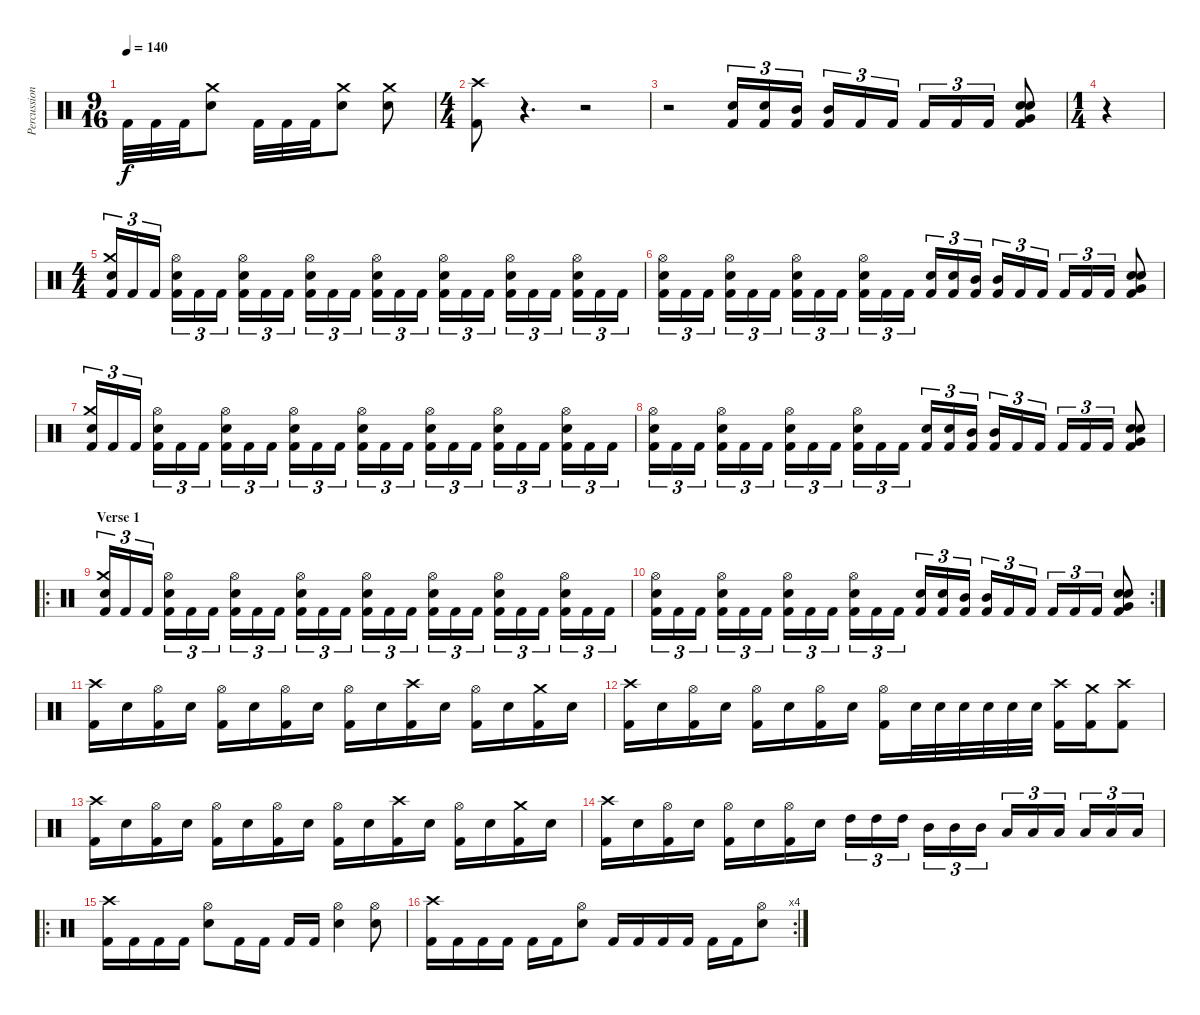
\track ("Percussioni" "Percussion") {instrument percussion}
\staff {score}
\articulation defaults
\ts (9 16)
\tempo 140
\clef neutral
\ks c "Kick (hit) 2".32{dy f} "Kick (hit) 2".32 "Kick (hit) 2".32
("Crash medium (hit)" "Electric Snare (hit)").8 "Kick (hit) 2".32 "Kick (hit) 2".32 "Kick (hit) 2".32 ("Crash medium (hit)" "Electric Snare (hit)").8 ("Crash medium (hit)" "Electric Snare (hit)").8 |
\ts (4 4)
("Crash high (hit)" "Kick (hit) 2").8 r.4{d} r.2 |
r.2 ("Electric Snare (hit)" "Kick (hit) 2").16{tu (3 2)} ("Electric Snare (hit)" "Kick (hit) 2").16{tu (3 2)} ("Mid Tom (hit)" "Kick (hit) 2").16{tu (3 2)} ("Mid Tom (hit)" "Kick (hit) 2").16{tu (3 2)} "Kick (hit) 2".16{tu (3 2)} "Kick (hit) 2".16{tu (3 2)} "Kick (hit) 2".16{tu (3 2)} "Kick (hit) 2".16{tu (3 2)} "Kick (hit) 2".16{tu (3 2)} ("Electric Snare (hit)" "Electric Snare (hit)" "Very Low Tom (hit)" "Kick (hit) 2").8 |
\ts (1 4)
r.4 |
\ts (4 4)
("Crash medium (hit)" "Electric Snare (hit)" "Kick (hit) 2").16{tu (3 2)} "Kick (hit) 2".16{tu (3 2)} "Kick (hit) 2".16{tu (3 2)} ("Hi-Hat (open)" "Electric Snare (hit)" "Kick (hit) 2").16{tu (3 2)} "Kick (hit) 2".16{tu (3 2)} "Kick (hit) 2".16{tu (3 2)} ("Hi-Hat (open)" "Electric Snare (hit)" "Kick (hit) 2").16{tu (3 2)} "Kick (hit) 2".16{tu (3 2)} "Kick (hit) 2".16{tu (3 2)} ("Hi-Hat (open)" "Electric Snare (hit)" "Kick (hit) 2").16{tu (3 2)} "Kick (hit) 2".16{tu (3 2)} "Kick (hit) 2".16{tu (3 2)} ("Hi-Hat (open)" "Electric Snare (hit)" "Kick (hit) 2").16{tu (3 2)} "Kick (hit) 2".16{tu (3 2)} "Kick (hit) 2".16{tu (3 2)} ("Hi-Hat (open)" "Electric Snare (hit)" "Kick (hit) 2").16{tu (3 2)} "Kick (hit) 2".16{tu (3 2)} "Kick (hit) 2".16{tu (3 2)} ("Hi-Hat (open)" "Electric Snare (hit)" "Kick (hit) 2").16{tu (3 2)} "Kick (hit) 2".16{tu (3 2)} "Kick (hit) 2".16{tu (3 2)} ("Hi-Hat (open)" "Electric Snare (hit)" "Kick (hit) 2").16{tu (3 2)} "Kick (hit) 2".16{tu (3 2)} "Kick (hit) 2".16{tu (3 2)} |
("Hi-Hat (open)" "Electric Snare (hit)" "Kick (hit) 2").16{tu (3 2)} "Kick (hit) 2".16{tu (3 2)} "Kick (hit) 2".16{tu (3 2)} ("Hi-Hat (open)" "Electric Snare (hit)" "Kick (hit) 2").16{tu (3 2)} "Kick (hit) 2".16{tu (3 2)} "Kick (hit) 2".16{tu (3 2)} ("Hi-Hat (open)" "Electric Snare (hit)" "Kick (hit) 2").16{tu (3 2)} "Kick (hit) 2".16{tu (3 2)} "Kick (hit) 2".16{tu (3 2)} ("Hi-Hat (open)" "Electric Snare (hit)" "Kick (hit) 2").16{tu (3 2)} "Kick (hit) 2".16{tu (3 2)} "Kick (hit) 2".16{tu (3 2)} ("Electric Snare (hit)" "Kick (hit) 2").16{tu (3 2)} ("Electric Snare (hit)" "Kick (hit) 2").16{tu (3 2)} ("Mid Tom (hit)" "Kick (hit) 2").16{tu (3 2)} ("Mid Tom (hit)" "Kick (hit) 2").16{tu (3 2)} "Kick (hit) 2".16{tu (3 2)} "Kick (hit) 2".16{tu (3 2)} "Kick (hit) 2".16{tu (3 2)} "Kick (hit) 2".16{tu (3 2)} "Kick (hit) 2".16{tu (3 2)} ("Electric Snare (hit)" "Electric Snare (hit)" "Very Low Tom (hit)" "Kick (hit) 2").8 |
("Crash medium (hit)" "Electric Snare (hit)" "Kick (hit) 2").16{tu (3 2)} "Kick (hit) 2".16{tu (3 2)} "Kick (hit) 2".16{tu (3 2)} ("Hi-Hat (open)" "Electric Snare (hit)" "Kick (hit) 2").16{tu (3 2)} "Kick (hit) 2".16{tu (3 2)} "Kick (hit) 2".16{tu (3 2)} ("Hi-Hat (open)" "Electric Snare (hit)" "Kick (hit) 2").16{tu (3 2)} "Kick (hit) 2".16{tu (3 2)} "Kick (hit) 2".16{tu (3 2)} ("Hi-Hat (open)" "Electric Snare (hit)" "Kick (hit) 2").16{tu (3 2)} "Kick (hit) 2".16{tu (3 2)} "Kick (hit) 2".16{tu (3 2)} ("Hi-Hat (open)" "Electric Snare (hit)" "Kick (hit) 2").16{tu (3 2)} "Kick (hit) 2".16{tu (3 2)} "Kick (hit) 2".16{tu (3 2)} ("Hi-Hat (open)" "Electric Snare (hit)" "Kick (hit) 2").16{tu (3 2)} "Kick (hit) 2".16{tu (3 2)} "Kick (hit) 2".16{tu (3 2)} ("Hi-Hat (open)" "Electric Snare (hit)" "Kick (hit) 2").16{tu (3 2)} "Kick (hit) 2".16{tu (3 2)} "Kick (hit) 2".16{tu (3 2)} ("Hi-Hat (open)" "Electric Snare (hit)" "Kick (hit) 2").16{tu (3 2)} "Kick (hit) 2".16{tu (3 2)} "Kick (hit) 2".16{tu (3 2)} |
("Hi-Hat (open)" "Electric Snare (hit)" "Kick (hit) 2").16{tu (3 2)} "Kick (hit) 2".16{tu (3 2)} "Kick (hit) 2".16{tu (3 2)} ("Hi-Hat (open)" "Electric Snare (hit)" "Kick (hit) 2").16{tu (3 2)} "Kick (hit) 2".16{tu (3 2)} "Kick (hit) 2".16{tu (3 2)} ("Hi-Hat (open)" "Electric Snare (hit)" "Kick (hit) 2").16{tu (3 2)} "Kick (hit) 2".16{tu (3 2)} "Kick (hit) 2".16{tu (3 2)} ("Hi-Hat (open)" "Electric Snare (hit)" "Kick (hit) 2").16{tu (3 2)} "Kick (hit) 2".16{tu (3 2)} "Kick (hit) 2".16{tu (3 2)} ("Electric Snare (hit)" "Kick (hit) 2").16{tu (3 2)} ("Electric Snare (hit)" "Kick (hit) 2").16{tu (3 2)} ("Mid Tom (hit)" "Kick (hit) 2").16{tu (3 2)} ("Mid Tom (hit)" "Kick (hit) 2").16{tu (3 2)} "Kick (hit) 2".16{tu (3 2)} "Kick (hit) 2".16{tu (3 2)} "Kick (hit) 2".16{tu (3 2)} "Kick (hit) 2".16{tu (3 2)} "Kick (hit) 2".16{tu (3 2)} ("Electric Snare (hit)" "Electric Snare (hit)" "Very Low Tom (hit)" "Kick (hit) 2").8 |
\ro
\section ("" "Verse 1")
("Crash medium (hit)" "Electric Snare (hit)" "Kick (hit) 2").16{tu (3 2)} "Kick (hit) 2".16{tu (3 2)} "Kick (hit) 2".16{tu (3 2)} ("Hi-Hat (open)" "Electric Snare (hit)" "Kick (hit) 2").16{tu (3 2)} "Kick (hit) 2".16{tu (3 2)} "Kick (hit) 2".16{tu (3 2)} ("Hi-Hat (open)" "Electric Snare (hit)" "Kick (hit) 2").16{tu (3 2)} "Kick (hit) 2".16{tu (3 2)} "Kick (hit) 2".16{tu (3 2)} ("Hi-Hat (open)" "Electric Snare (hit)" "Kick (hit) 2").16{tu (3 2)} "Kick (hit) 2".16{tu (3 2)} "Kick (hit) 2".16{tu (3 2)} ("Hi-Hat (open)" "Electric Snare (hit)" "Kick (hit) 2").16{tu (3 2)} "Kick (hit) 2".16{tu (3 2)} "Kick (hit) 2".16{tu (3 2)} ("Hi-Hat (open)" "Electric Snare (hit)" "Kick (hit) 2").16{tu (3 2)} "Kick (hit) 2".16{tu (3 2)} "Kick (hit) 2".16{tu (3 2)} ("Hi-Hat (open)" "Electric Snare (hit)" "Kick (hit) 2").16{tu (3 2)} "Kick (hit) 2".16{tu (3 2)} "Kick (hit) 2".16{tu (3 2)} ("Hi-Hat (open)" "Electric Snare (hit)" "Kick (hit) 2").16{tu (3 2)} "Kick (hit) 2".16{tu (3 2)} "Kick (hit) 2".16{tu (3 2)} |
\rc 2
("Hi-Hat (open)" "Electric Snare (hit)" "Kick (hit) 2").16{tu (3 2)} "Kick (hit) 2".16{tu (3 2)} "Kick (hit) 2".16{tu (3 2)} ("Hi-Hat (open)" "Electric Snare (hit)" "Kick (hit) 2").16{tu (3 2)} "Kick (hit) 2".16{tu (3 2)} "Kick (hit) 2".16{tu (3 2)} ("Hi-Hat (open)" "Electric Snare (hit)" "Kick (hit) 2").16{tu (3 2)} "Kick (hit) 2".16{tu (3 2)} "Kick (hit) 2".16{tu (3 2)} ("Hi-Hat (open)" "Electric Snare (hit)" "Kick (hit) 2").16{tu (3 2)} "Kick (hit) 2".16{tu (3 2)} "Kick (hit) 2".16{tu (3 2)} ("Electric Snare (hit)" "Kick (hit) 2").16{tu (3 2)} ("Electric Snare (hit)" "Kick (hit) 2").16{tu (3 2)} ("Mid Tom (hit)" "Kick (hit) 2").16{tu (3 2)} ("Mid Tom (hit)" "Kick (hit) 2").16{tu (3 2)} "Kick (hit) 2".16{tu (3 2)} "Kick (hit) 2".16{tu (3 2)} "Kick (hit) 2".16{tu (3 2)} "Kick (hit) 2".16{tu (3 2)} "Kick (hit) 2".16{tu (3 2)} ("Electric Snare (hit)" "Electric Snare (hit)" "Very Low Tom (hit)" "Kick (hit) 2").8 |
("Crash high (hit)" "Kick (hit) 2").16 "Electric Snare (hit)".16 ("Hi-Hat (open)" "Kick (hit) 2").16 "Electric Snare (hit)".16 ("Hi-Hat (open)" "Kick (hit) 2").16 "Electric Snare (hit)".16 ("Hi-Hat (open)" "Kick (hit) 2").16 "Electric Snare (hit)".16 ("Hi-Hat (open)" "Kick (hit) 2").16 "Electric Snare (hit)".16 ("Crash high (hit)" "Kick (hit) 2").16 "Electric Snare (hit)".16 ("Hi-Hat (open)" "Kick (hit) 2").16 "Electric Snare (hit)".16 ("Crash medium (hit)" "Kick (hit) 2").16 "Electric Snare (hit)".16 |
("Crash high (hit)" "Kick (hit) 2").16 "Electric Snare (hit)".16 ("Hi-Hat (open)" "Kick (hit) 2").16 "Electric Snare (hit)".16 ("Hi-Hat (open)" "Kick (hit) 2").16 "Electric Snare (hit)".16 ("Hi-Hat (open)" "Kick (hit) 2").16 "Electric Snare (hit)".16 ("Hi-Hat (open)" "Kick (hit) 2").16 "Electric Snare (hit)".32 "Electric Snare (hit)".32 "Electric Snare (hit)".32 "Electric Snare (hit)".32 "Electric Snare (hit)".32 "Electric Snare (hit)".32 ("Crash high (hit)" "Kick (hit) 2").16 ("Crash medium (hit)" "Kick (hit) 2").16 ("Crash high (hit)" "Kick (hit) 2").8 |
("Crash high (hit)" "Kick (hit) 2").16 "Electric Snare (hit)".16 ("Hi-Hat (open)" "Kick (hit) 2").16 "Electric Snare (hit)".16 ("Hi-Hat (open)" "Kick (hit) 2").16 "Electric Snare (hit)".16 ("Hi-Hat (open)" "Kick (hit) 2").16 "Electric Snare (hit)".16 ("Hi-Hat (open)" "Kick (hit) 2").16 "Electric Snare (hit)".16 ("Crash high (hit)" "Kick (hit) 2").16 "Electric Snare (hit)".16 ("Hi-Hat (open)" "Kick (hit) 2").16 "Electric Snare (hit)".16 ("Crash medium (hit)" "Kick (hit) 2").16 "Electric Snare (hit)".16 |
("Crash high (hit)" "Kick (hit) 2").16 "Electric Snare (hit)".16 ("Hi-Hat (open)" "Kick (hit) 2").16 "Electric Snare (hit)".16 ("Hi-Hat (open)" "Kick (hit) 2").16 "Electric Snare (hit)".16 ("Hi-Hat (open)" "Kick (hit) 2").16 "Electric Snare (hit)".16 "High Tom (hit)".16{tu (3 2)} "High Tom (hit)".16{tu (3 2)} "High Tom (hit)".16{tu (3 2)} "Mid Tom (hit)".16{tu (3 2)} "Mid Tom (hit)".16{tu (3 2)} "Mid Tom (hit)".16{tu (3 2)} "Low Tom (hit)".16{tu (3 2)} "Low Tom (hit)".16{tu (3 2)} "Low Tom (hit)".16{tu (3 2)} "Low Floor Tom (hit)".16{tu (3 2)} "Low Floor Tom (hit)".16{tu (3 2)} "Low Floor Tom (hit)".16{tu (3 2)} |
\ro
("Crash high (hit)" "Kick (hit) 2").16 "Kick (hit) 2".16 "Kick (hit) 2".16 "Kick (hit) 2".16 ("Hi-Hat (open)" "Electric Snare (hit)").8 "Kick (hit) 2".16 "Kick (hit) 2".16 "Kick (hit) 2".16 "Kick (hit) 2".16 ("Hi-Hat (open)" "Electric Snare (hit)").4 ("Hi-Hat (open)" "Electric Snare (hit)").8 |
\rc 4
("Crash high (hit)" "Kick (hit) 2").16 "Kick (hit) 2".16 "Kick (hit) 2".16 "Kick (hit) 2".16 "Kick (hit) 2".16 "Kick (hit) 2".16 ("Hi-Hat (open)" "Electric Snare (hit)").8 "Kick (hit) 2".16 "Kick (hit) 2".16 "Kick (hit) 2".16 "Kick (hit) 2".16 "Kick (hit) 2".16 "Kick (hit) 2".16 ("Hi-Hat (open)" "Electric Snare (hit)").8
